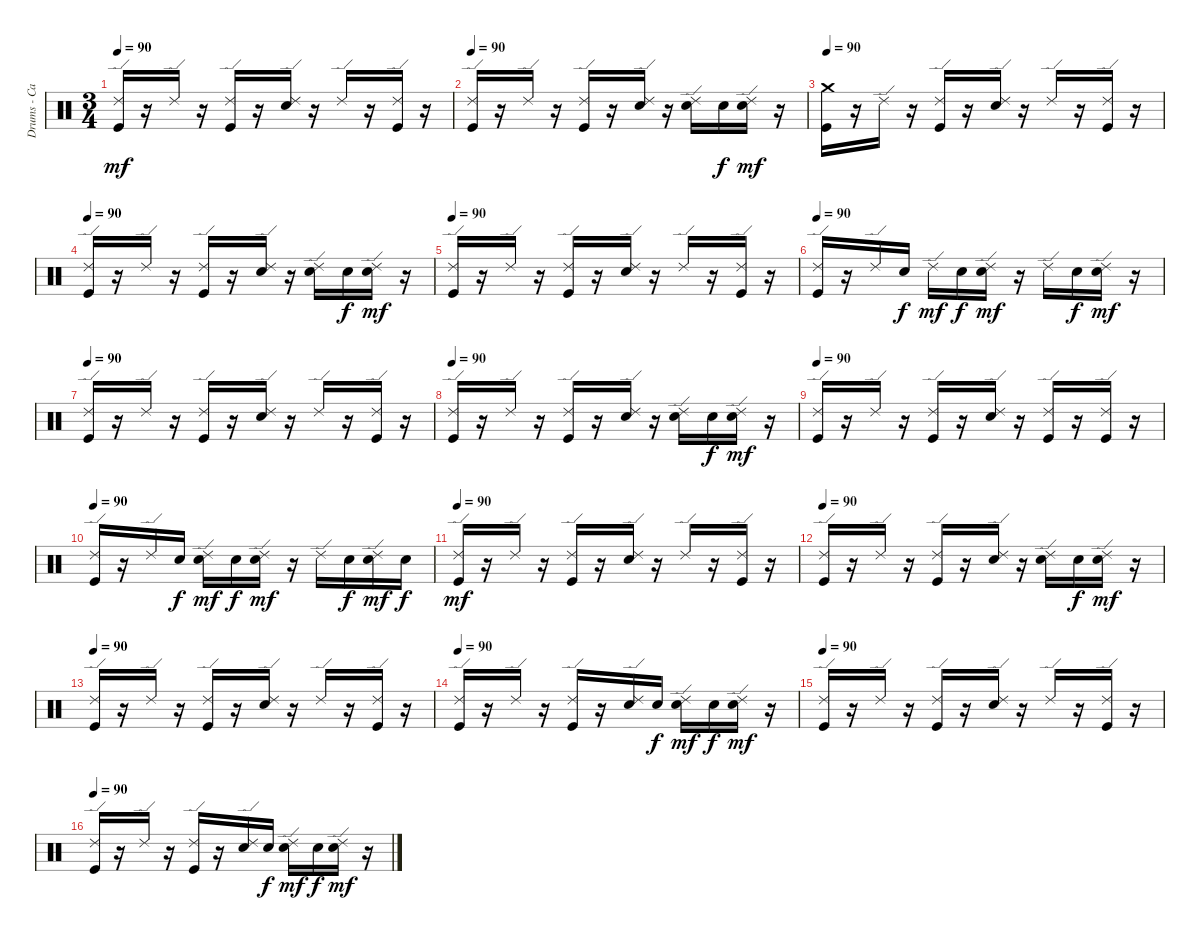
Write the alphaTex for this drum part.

\track ("Drums - Carla Azar" "Drums - Ca") {instrument percussion}
\staff {score}
\articulation defaults
\ts (3 4)
\tempo 90
\clef neutral
\ks c
("Ride (edge) 2" "Kick (hit)").16{dy mf} r.16 "Ride (edge) 2".16 r.16 ("Ride (edge) 2" "Kick (hit)").16 r.16 ("Ride (edge) 2" "Snare (hit) 2").16 r.16 "Ride (edge) 2".16 r.16 ("Ride (edge) 2" "Kick (hit)").16 r.16 |
\tempo 90
("Ride (edge) 2" "Kick (hit)").16 r.16 "Ride (edge) 2".16 r.16 ("Ride (edge) 2" "Kick (hit)").16 r.16 ("Ride (edge) 2" "Snare (hit) 2").16 r.16 ("Ride (edge) 2" "Snare (hit) 2").16 "Snare (hit) 2".16{dy f} ("Ride (edge) 2" "Snare (hit) 2").16{dy mf} r.16 |
\tempo 90
("Crash medium (hit)" "Kick (hit)").16 r.16 "Ride (edge) 2".16 r.16 ("Ride (edge) 2" "Kick (hit)").16 r.16 ("Ride (edge) 2" "Snare (hit) 2").16 r.16 "Ride (edge) 2".16 r.16 ("Ride (edge) 2" "Kick (hit)").16 r.16 |
\tempo 90
("Ride (edge) 2" "Kick (hit)").16 r.16 "Ride (edge) 2".16 r.16 ("Ride (edge) 2" "Kick (hit)").16 r.16 ("Ride (edge) 2" "Snare (hit) 2").16 r.16 ("Ride (edge) 2" "Snare (hit) 2").16 "Snare (hit) 2".16{dy f} ("Ride (edge) 2" "Snare (hit) 2").16{dy mf} r.16 |
\tempo 90
("Ride (edge) 2" "Kick (hit)").16 r.16 "Ride (edge) 2".16 r.16 ("Ride (edge) 2" "Kick (hit)").16 r.16 ("Ride (edge) 2" "Snare (hit) 2").16 r.16 "Ride (edge) 2".16 r.16 ("Ride (edge) 2" "Kick (hit)").16 r.16 |
\tempo 90
("Ride (edge) 2" "Kick (hit)").16 r.16 "Ride (edge) 2".16 "Snare (hit) 2".16{dy f} "Ride (edge) 2".16{dy mf} "Snare (hit) 2".16{dy f} ("Ride (edge) 2" "Snare (hit) 2").16{dy mf} r.16 "Ride (edge) 2".16 "Snare (hit) 2".16{dy f} ("Ride (edge) 2" "Snare (hit) 2").16{dy mf} r.16 |
\tempo 90
("Ride (edge) 2" "Kick (hit)").16 r.16 "Ride (edge) 2".16 r.16 ("Ride (edge) 2" "Kick (hit)").16 r.16 ("Ride (edge) 2" "Snare (hit) 2").16 r.16 "Ride (edge) 2".16 r.16 ("Ride (edge) 2" "Kick (hit)").16 r.16 |
\tempo 90
("Ride (edge) 2" "Kick (hit)").16 r.16 "Ride (edge) 2".16 r.16 ("Ride (edge) 2" "Kick (hit)").16 r.16 ("Ride (edge) 2" "Snare (hit) 2").16 r.16 ("Ride (edge) 2" "Snare (hit) 2").16 "Snare (hit) 2".16{dy f} ("Ride (edge) 2" "Snare (hit) 2").16{dy mf} r.16 |
\tempo 90
("Ride (edge) 2" "Kick (hit)").16 r.16 "Ride (edge) 2".16 r.16 ("Ride (edge) 2" "Kick (hit)").16 r.16 ("Ride (edge) 2" "Snare (hit) 2").16 r.16 ("Ride (edge) 2" "Kick (hit)").16 r.16 ("Ride (edge) 2" "Kick (hit)").16 r.16 |
\tempo 90
("Ride (edge) 2" "Kick (hit)").16 r.16 "Ride (edge) 2".16 "Snare (hit) 2".16{dy f} ("Ride (edge) 2" "Snare (hit) 2").16{dy mf} "Snare (hit) 2".16{dy f} ("Ride (edge) 2" "Snare (hit) 2").16{dy mf} r.16 "Ride (edge) 2".16 "Snare (hit) 2".16{dy f} ("Ride (edge) 2" "Snare (hit) 2").16{dy mf} "Snare (hit) 2".16{dy f} |
\tempo 90
("Ride (edge) 2" "Kick (hit)").16{dy mf} r.16 "Ride (edge) 2".16 r.16 ("Ride (edge) 2" "Kick (hit)").16 r.16 ("Ride (edge) 2" "Snare (hit) 2").16 r.16 "Ride (edge) 2".16 r.16 ("Ride (edge) 2" "Kick (hit)").16 r.16 |
\tempo 90
("Ride (edge) 2" "Kick (hit)").16 r.16 "Ride (edge) 2".16 r.16 ("Ride (edge) 2" "Kick (hit)").16 r.16 ("Ride (edge) 2" "Snare (hit) 2").16 r.16 ("Ride (edge) 2" "Snare (hit) 2").16 "Snare (hit) 2".16{dy f} ("Ride (edge) 2" "Snare (hit) 2").16{dy mf} r.16 |
\tempo 90
("Ride (edge) 2" "Kick (hit)").16 r.16 "Ride (edge) 2".16 r.16 ("Ride (edge) 2" "Kick (hit)").16 r.16 ("Ride (edge) 2" "Snare (hit) 2").16 r.16 "Ride (edge) 2".16 r.16 ("Ride (edge) 2" "Kick (hit)").16 r.16 |
\tempo 90
("Ride (edge) 2" "Kick (hit)").16 r.16 "Ride (edge) 2".16 r.16 ("Ride (edge) 2" "Kick (hit)").16 r.16 ("Ride (edge) 2" "Snare (hit) 2").16 "Snare (hit) 2".16{dy f} ("Ride (edge) 2" "Snare (hit) 2").16{dy mf} "Snare (hit) 2".16{dy f} ("Ride (edge) 2" "Snare (hit) 2").16{dy mf} r.16 |
\tempo 90
("Ride (edge) 2" "Kick (hit)").16 r.16 "Ride (edge) 2".16 r.16 ("Ride (edge) 2" "Kick (hit)").16 r.16 ("Ride (edge) 2" "Snare (hit) 2").16 r.16 "Ride (edge) 2".16 r.16 ("Ride (edge) 2" "Kick (hit)").16 r.16 |
\tempo 90
("Ride (edge) 2" "Kick (hit)").16 r.16 "Ride (edge) 2".16 r.16 ("Ride (edge) 2" "Kick (hit)").16 r.16 ("Ride (edge) 2" "Snare (hit) 2").16 "Snare (hit) 2".16{dy f} ("Ride (edge) 2" "Snare (hit) 2").16{dy mf} "Snare (hit) 2".16{dy f} ("Ride (edge) 2" "Snare (hit) 2").16{dy mf} r.16
